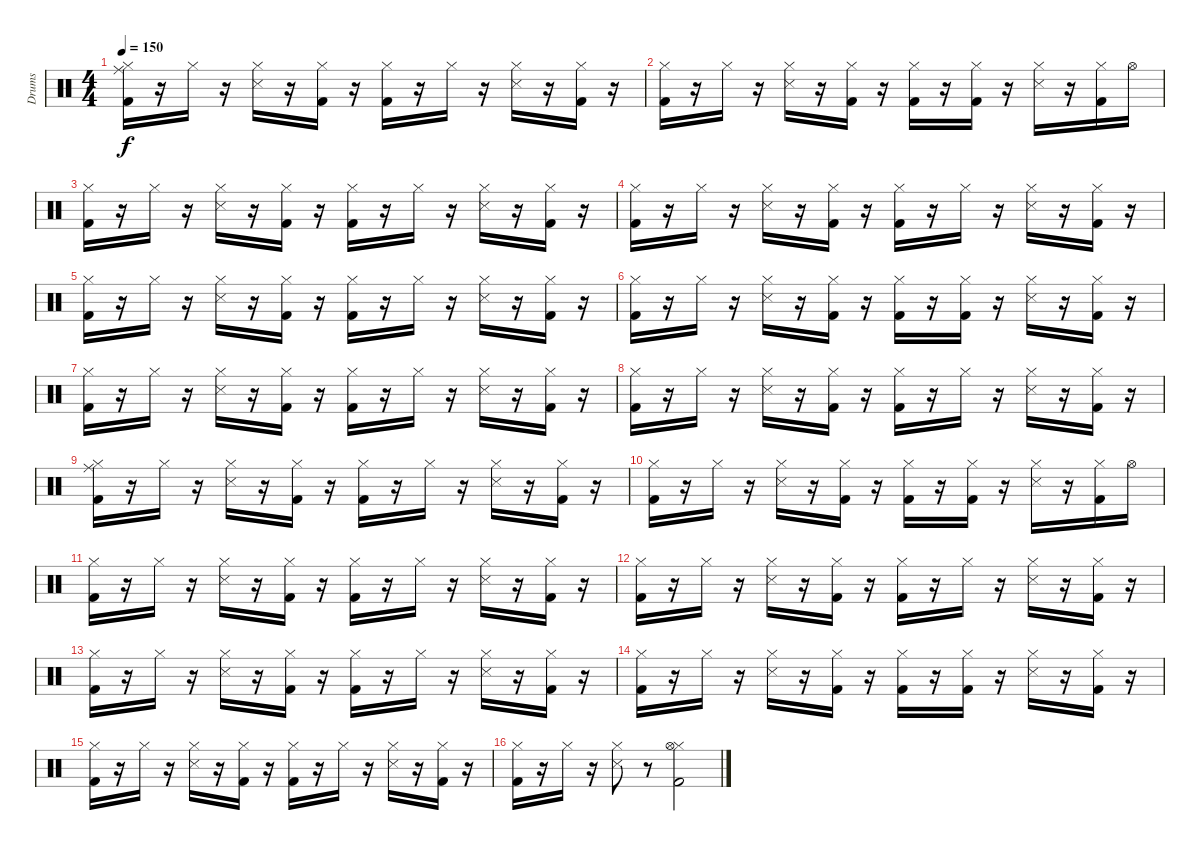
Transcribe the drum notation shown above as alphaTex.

\track ("Drums" "Drums") {instrument percussion}
\staff {score}
\articulation defaults
\ts (4 4)
\tempo 150
\clef neutral
\ks c
("Kick (hit) 2" "Hi-Hat (closed)" "Ride (middle)").16{dy f} r.16 "Hi-Hat (closed)".16 r.16 ("Hi-Hat (closed)" "Snare (side stick) 3").16 r.16 ("Kick (hit) 2" "Hi-Hat (closed)").16 r.16 ("Kick (hit) 2" "Hi-Hat (closed)").16 r.16 "Hi-Hat (closed)".16 r.16 ("Hi-Hat (closed)" "Snare (side stick) 3").16 r.16 ("Kick (hit) 2" "Hi-Hat (closed)").16 r.16 |
("Kick (hit) 2" "Hi-Hat (closed)").16 r.16 "Hi-Hat (closed)".16 r.16 ("Hi-Hat (closed)" "Snare (side stick) 3").16 r.16 ("Kick (hit) 2" "Hi-Hat (closed)").16 r.16 ("Kick (hit) 2" "Hi-Hat (closed)").16 r.16 ("Kick (hit) 2" "Hi-Hat (closed)").16 r.16 ("Hi-Hat (closed)" "Snare (side stick) 3").16 r.16 ("Kick (hit) 2" "Hi-Hat (closed)").16 "Hi-Hat (open)".16 |
("Kick (hit) 2" "Hi-Hat (closed)").16 r.16 "Hi-Hat (closed)".16 r.16 ("Hi-Hat (closed)" "Snare (side stick) 3").16 r.16 ("Kick (hit) 2" "Hi-Hat (closed)").16 r.16 ("Kick (hit) 2" "Hi-Hat (closed)").16 r.16 "Hi-Hat (closed)".16 r.16 ("Hi-Hat (closed)" "Snare (side stick) 3").16 r.16 ("Kick (hit) 2" "Hi-Hat (closed)").16 r.16 |
("Kick (hit) 2" "Hi-Hat (closed)").16 r.16 "Hi-Hat (closed)".16 r.16 ("Hi-Hat (closed)" "Snare (side stick) 3").16 r.16 ("Kick (hit) 2" "Hi-Hat (closed)").16 r.16 ("Kick (hit) 2" "Hi-Hat (closed)").16 r.16 "Hi-Hat (closed)".16 r.16 ("Hi-Hat (closed)" "Snare (side stick) 3").16 r.16 ("Kick (hit) 2" "Hi-Hat (closed)").16 r.16 |
("Kick (hit) 2" "Hi-Hat (closed)").16 r.16 "Hi-Hat (closed)".16 r.16 ("Hi-Hat (closed)" "Snare (side stick) 3").16 r.16 ("Kick (hit) 2" "Hi-Hat (closed)").16 r.16 ("Kick (hit) 2" "Hi-Hat (closed)").16 r.16 "Hi-Hat (closed)".16 r.16 ("Hi-Hat (closed)" "Snare (side stick) 3").16 r.16 ("Kick (hit) 2" "Hi-Hat (closed)").16 r.16 |
("Kick (hit) 2" "Hi-Hat (closed)").16 r.16 "Hi-Hat (closed)".16 r.16 ("Hi-Hat (closed)" "Snare (side stick) 3").16 r.16 ("Kick (hit) 2" "Hi-Hat (closed)").16 r.16 ("Kick (hit) 2" "Hi-Hat (closed)").16 r.16 ("Kick (hit) 2" "Hi-Hat (closed)").16 r.16 ("Hi-Hat (closed)" "Snare (side stick) 3").16 r.16 ("Kick (hit) 2" "Hi-Hat (closed)").16 r.16 |
("Kick (hit) 2" "Hi-Hat (closed)").16 r.16 "Hi-Hat (closed)".16 r.16 ("Hi-Hat (closed)" "Snare (side stick) 3").16 r.16 ("Kick (hit) 2" "Hi-Hat (closed)").16 r.16 ("Kick (hit) 2" "Hi-Hat (closed)").16 r.16 "Hi-Hat (closed)".16 r.16 ("Hi-Hat (closed)" "Snare (side stick) 3").16 r.16 ("Kick (hit) 2" "Hi-Hat (closed)").16 r.16 |
("Kick (hit) 2" "Hi-Hat (closed)").16 r.16 "Hi-Hat (closed)".16 r.16 ("Hi-Hat (closed)" "Snare (side stick) 3").16 r.16 ("Kick (hit) 2" "Hi-Hat (closed)").16 r.16 ("Kick (hit) 2" "Hi-Hat (closed)").16 r.16 "Hi-Hat (closed)".16 r.16 ("Hi-Hat (closed)" "Snare (side stick) 3").16 r.16 ("Kick (hit) 2" "Hi-Hat (closed)").16 r.16 |
("Kick (hit) 2" "Hi-Hat (closed)" "Ride (middle)").16 r.16 "Hi-Hat (closed)".16{volume 11} r.16 ("Hi-Hat (closed)" "Snare (side stick) 3").16 r.16 ("Kick (hit) 2" "Hi-Hat (closed)").16 r.16 ("Kick (hit) 2" "Hi-Hat (closed)").16 r.16 "Hi-Hat (closed)".16 r.16 ("Hi-Hat (closed)" "Snare (side stick) 3").16 r.16 ("Kick (hit) 2" "Hi-Hat (closed)").16 r.16 |
("Kick (hit) 2" "Hi-Hat (closed)").16 r.16 "Hi-Hat (closed)".16 r.16 ("Hi-Hat (closed)" "Snare (side stick) 3").16 r.16 ("Kick (hit) 2" "Hi-Hat (closed)").16 r.16 ("Kick (hit) 2" "Hi-Hat (closed)").16 r.16 ("Kick (hit) 2" "Hi-Hat (closed)").16 r.16 ("Hi-Hat (closed)" "Snare (side stick) 3").16 r.16 ("Kick (hit) 2" "Hi-Hat (closed)").16 "Hi-Hat (open)".16 |
("Kick (hit) 2" "Hi-Hat (closed)").16 r.16 "Hi-Hat (closed)".16 r.16 ("Hi-Hat (closed)" "Snare (side stick) 3").16 r.16 ("Kick (hit) 2" "Hi-Hat (closed)").16 r.16 ("Kick (hit) 2" "Hi-Hat (closed)").16 r.16 "Hi-Hat (closed)".16 r.16 ("Hi-Hat (closed)" "Snare (side stick) 3").16 r.16 ("Kick (hit) 2" "Hi-Hat (closed)").16 r.16 |
("Kick (hit) 2" "Hi-Hat (closed)").16 r.16 "Hi-Hat (closed)".16 r.16 ("Hi-Hat (closed)" "Snare (side stick) 3").16 r.16 ("Kick (hit) 2" "Hi-Hat (closed)").16 r.16 ("Kick (hit) 2" "Hi-Hat (closed)").16 r.16 "Hi-Hat (closed)".16 r.16 ("Hi-Hat (closed)" "Snare (side stick) 3").16 r.16 ("Kick (hit) 2" "Hi-Hat (closed)").16 r.16 |
("Kick (hit) 2" "Hi-Hat (closed)").16 r.16 "Hi-Hat (closed)".16 r.16 ("Hi-Hat (closed)" "Snare (side stick) 3").16 r.16 ("Kick (hit) 2" "Hi-Hat (closed)").16 r.16 ("Kick (hit) 2" "Hi-Hat (closed)").16 r.16 "Hi-Hat (closed)".16 r.16 ("Hi-Hat (closed)" "Snare (side stick) 3").16 r.16 ("Kick (hit) 2" "Hi-Hat (closed)").16 r.16 |
("Kick (hit) 2" "Hi-Hat (closed)").16 r.16 "Hi-Hat (closed)".16 r.16 ("Hi-Hat (closed)" "Snare (side stick) 3").16 r.16 ("Kick (hit) 2" "Hi-Hat (closed)").16 r.16 ("Kick (hit) 2" "Hi-Hat (closed)").16 r.16 ("Kick (hit) 2" "Hi-Hat (closed)").16 r.16 ("Hi-Hat (closed)" "Snare (side stick) 3").16 r.16 ("Kick (hit) 2" "Hi-Hat (closed)").16 r.16 |
("Kick (hit) 2" "Hi-Hat (closed)").16 r.16 "Hi-Hat (closed)".16 r.16 ("Hi-Hat (closed)" "Snare (side stick) 3").16 r.16 ("Kick (hit) 2" "Hi-Hat (closed)").16 r.16 ("Kick (hit) 2" "Hi-Hat (closed)").16 r.16 "Hi-Hat (closed)".16 r.16 ("Hi-Hat (closed)" "Snare (side stick) 3").16 r.16 ("Kick (hit) 2" "Hi-Hat (closed)").16 r.16 |
("Kick (hit) 2" "Hi-Hat (closed)").16 r.16 "Hi-Hat (closed)".16 r.16 ("Hi-Hat (closed)" "Snare (side stick) 3").8 r.8 ("Hi-Hat (closed)" "Hi-Hat (open)" "Kick (hit) 2").2
